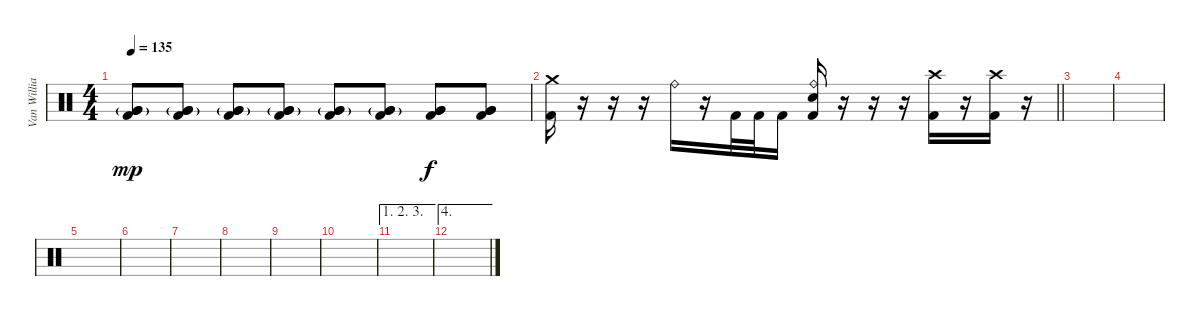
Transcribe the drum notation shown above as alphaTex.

\track ("Van Williams" "Van Willia") {instrument percussion}
\staff {score}
\articulation defaults
\ts (4 4)
\tempo 135
\clef neutral
\ks c
("Kick (hit) 2" "Very Low Tom (hit)"{g} "Very Low Tom (hit)"{g}).8{dy mp} ("Kick (hit) 2" "Very Low Tom (hit)"{g} "Very Low Tom (hit)"{g}).8 ("Kick (hit) 2" "Very Low Tom (hit)"{g} "Very Low Tom (hit)"{g}).8 ("Kick (hit) 2" "Very Low Tom (hit)" "Very Low Tom (hit)"{g}).8 ("Kick (hit) 2" "Very Low Tom (hit)" "Very Low Tom (hit)"{g}).8 ("Kick (hit) 2" "Very Low Tom (hit)" "Very Low Tom (hit)"{g}).8 ("Kick (hit) 2" "Very Low Tom (hit)" "Very Low Tom (hit)").8{dy f} ("Kick (hit) 2" "Very Low Tom (hit)" "Very Low Tom (hit)").8 |
\barLineRight lightlight
("Crash medium (hit)" "Kick (hit) 2").16 r.16 r.16 r.16 "Ride (bell)".16 r.16 "Kick (hit) 2".32 "Kick (hit) 2".32 "Kick (hit) 2".16 ("Ride (bell)" "Kick (hit) 2" "Electric Snare (hit)").16 r.16 r.16 r.16 ("Crash high (hit)" "Kick (hit) 2").16 r.16 ("Crash high (hit)" "Kick (hit) 2").16 r.16 |
|
|
|
|
|
|
|
|
\ae (1 2 3)
|
\ae 4
